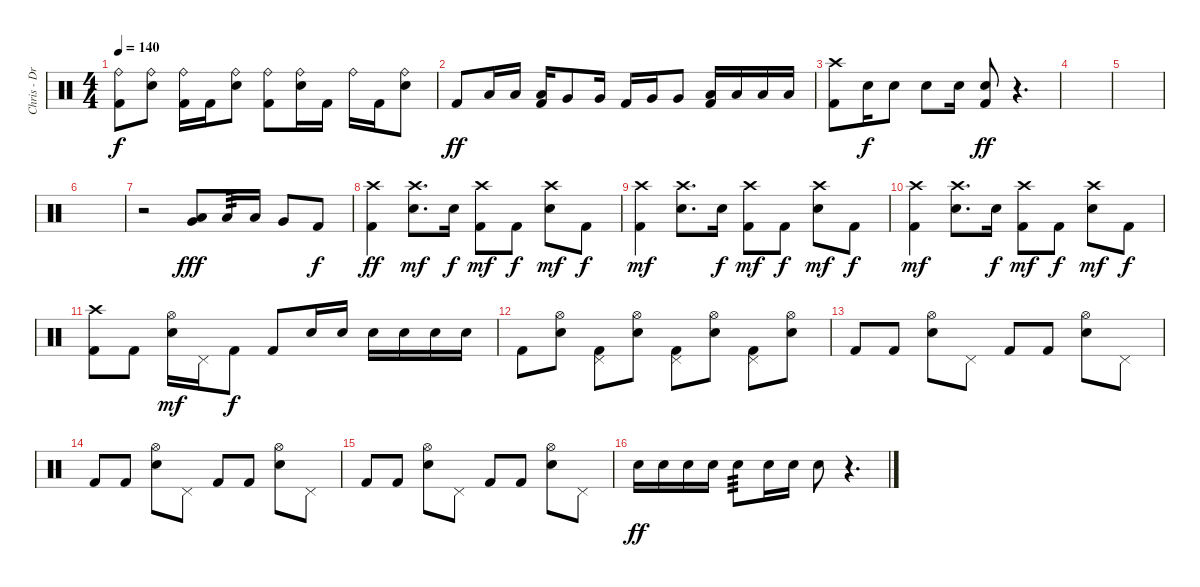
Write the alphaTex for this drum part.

\track ("Chris - Drums" "Chris - Dr") {instrument percussion}
\staff {score}
\articulation defaults
\ts (4 4)
\tempo 140
\clef neutral
\ks c
("Ride (bell)" "Kick (hit) 2").8{dy f} ("Ride (bell)" "Electric Snare (hit)").8 ("Ride (bell)" "Kick (hit) 2").16 "Kick (hit) 2".16 ("Ride (bell)" "Electric Snare (hit)").8 ("Ride (bell)" "Kick (hit) 2").8 ("Ride (bell)" "Electric Snare (hit)").16 "Kick (hit) 2".16 "Ride (bell)".16 "Kick (hit) 2".16 ("Ride (bell)" "Electric Snare (hit)").8 |
"Kick (hit) 2".8{dy ff} "Low Floor Tom (hit)".16 "Low Floor Tom (hit)".16 ("Low Floor Tom (hit)" "Kick (hit) 2").16 "Very Low Tom (hit)".8 "Very Low Tom (hit)".16 "Kick (hit) 2".16 "Very Low Tom (hit)".16 "Very Low Tom (hit)".8 ("Low Tom (hit)" "Kick (hit) 2").16 "Low Tom (hit)".16 "Low Tom (hit)".16 "Low Tom (hit)".16 |
("Crash high (hit)" "Kick (hit) 2").8 "Electric Snare (hit)".16{dy f} "Electric Snare (hit)".8 "Electric Snare (hit)".8 "Electric Snare (hit)".16 ("Electric Snare (hit)" "Kick (hit) 2").8{dy ff} r.4{d} |
|
|
|
r.2 ("Very Low Tom (hit)" "Low Floor Tom (hit)").8{dy fff} "Low Tom (hit)".16{tp 3} "Low Tom (hit)".16 "Very Low Tom (hit)".8 "Kick (hit) 2".8{dy f} |
("Crash high (hit)" "Kick (hit) 2").4{dy ff} ("Crash high (hit)" "Electric Snare (hit)").8{d dy mf} "Electric Snare (hit)".16{dy f} ("Crash high (hit)" "Kick (hit) 2").8{dy mf} "Kick (hit) 2".8{dy f} ("Crash high (hit)" "Electric Snare (hit)").8{dy mf} "Kick (hit) 2".8{dy f} |
("Crash high (hit)" "Kick (hit) 2").4{dy mf} ("Crash high (hit)" "Electric Snare (hit)").8{d} "Electric Snare (hit)".16{dy f} ("Crash high (hit)" "Kick (hit) 2").8{dy mf} "Kick (hit) 2".8{dy f} ("Crash high (hit)" "Electric Snare (hit)").8{dy mf} "Kick (hit) 2".8{dy f} |
("Crash high (hit)" "Kick (hit) 2").4{dy mf} ("Crash high (hit)" "Electric Snare (hit)").8{d} "Electric Snare (hit)".16{dy f} ("Crash high (hit)" "Kick (hit) 2").8{dy mf} "Kick (hit) 2".8{dy f} ("Crash high (hit)" "Electric Snare (hit)").8{dy mf} "Kick (hit) 2".8{dy f} |
("Crash high (hit)" "Kick (hit) 2").8 "Kick (hit) 2".8 ("Hi-Hat (open)" "Electric Snare (hit)").16{dy mf} "Pedal Hi-Hat (hit)".16 "Kick (hit) 2".8{dy f} "Kick (hit) 2".8 "Electric Snare (hit)".16 "Electric Snare (hit)".16 "Electric Snare (hit)".16 "Electric Snare (hit)".16 "Electric Snare (hit)".16 "Electric Snare (hit)".16 |
"Kick (hit) 2".8 ("Hi-Hat (open)" "Electric Snare (hit)").8 ("Pedal Hi-Hat (hit)" "Kick (hit) 2").8 ("Hi-Hat (open)" "Electric Snare (hit)").8 ("Pedal Hi-Hat (hit)" "Kick (hit) 2").8 ("Hi-Hat (open)" "Electric Snare (hit)").8 ("Pedal Hi-Hat (hit)" "Kick (hit) 2").8 ("Hi-Hat (open)" "Electric Snare (hit)").8 |
"Kick (hit) 2".8 "Kick (hit) 2".8 ("Hi-Hat (open)" "Electric Snare (hit)").8 "Pedal Hi-Hat (hit)".8 "Kick (hit) 2".8 "Kick (hit) 2".8 ("Hi-Hat (open)" "Electric Snare (hit)").8 "Pedal Hi-Hat (hit)".8 |
"Kick (hit) 2".8 "Kick (hit) 2".8 ("Hi-Hat (open)" "Electric Snare (hit)").8 "Pedal Hi-Hat (hit)".8 "Kick (hit) 2".8 "Kick (hit) 2".8 ("Hi-Hat (open)" "Electric Snare (hit)").8 "Pedal Hi-Hat (hit)".8 |
"Kick (hit) 2".8 "Kick (hit) 2".8 ("Hi-Hat (open)" "Electric Snare (hit)").8 "Pedal Hi-Hat (hit)".8 "Kick (hit) 2".8 "Kick (hit) 2".8 ("Hi-Hat (open)" "Electric Snare (hit)").8 "Pedal Hi-Hat (hit)".8 |
"Electric Snare (hit)".16{dy ff} "Electric Snare (hit)".16 "Electric Snare (hit)".16 "Electric Snare (hit)".16 "Electric Snare (hit)".8{tp 3} "Electric Snare (hit)".16 "Electric Snare (hit)".16 "Electric Snare (hit)".8 r.4{d}
